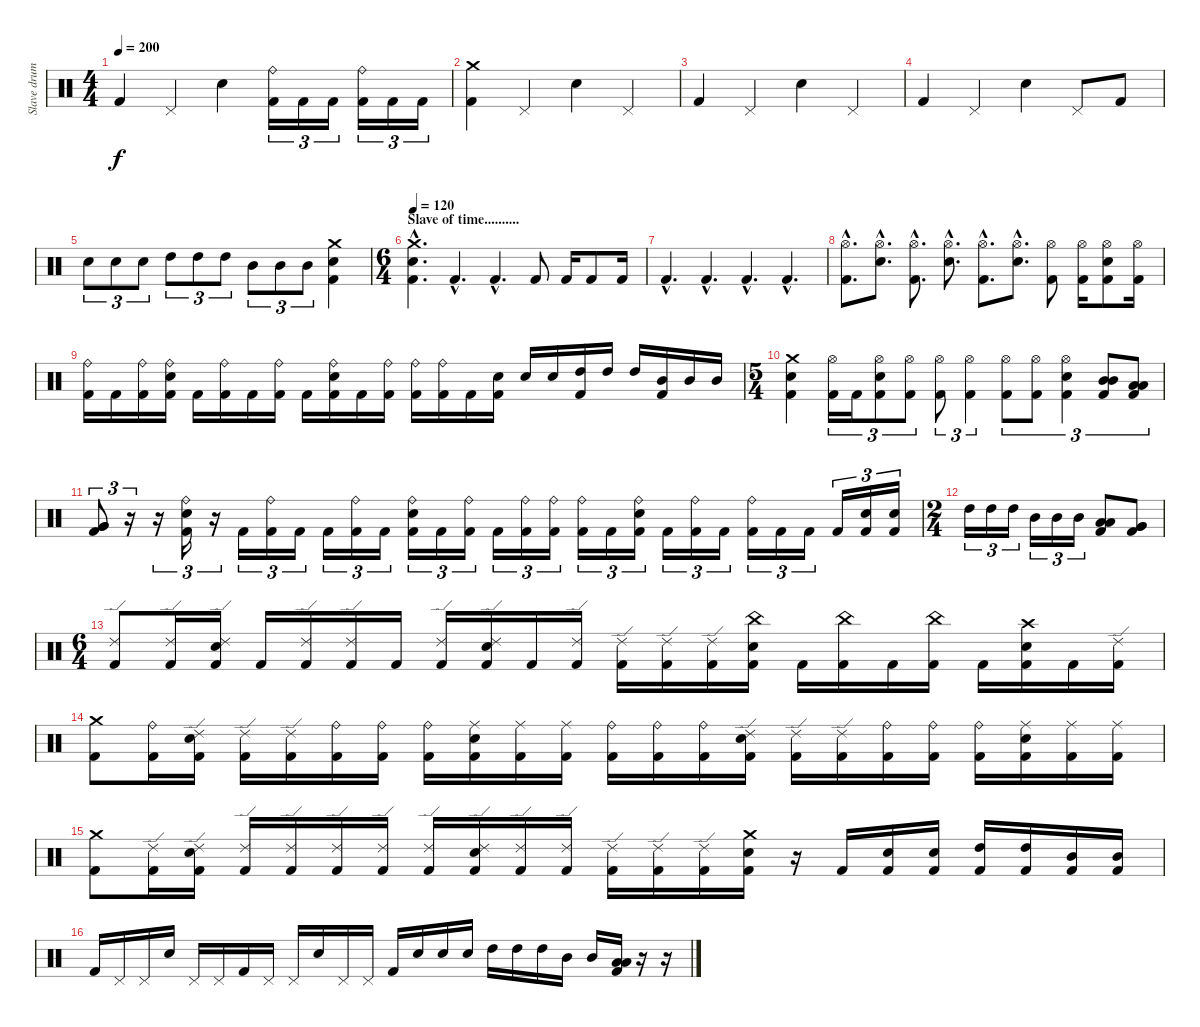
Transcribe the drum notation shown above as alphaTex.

\track ("Slave drum" "Slave drum") {instrument percussion}
\staff {score}
\articulation defaults
\ts (4 4)
\tempo 200
\clef neutral
\ks c "Kick (hit) 2".4{dy f} "Pedal Hi-Hat (hit)".4 "Electric Snare (hit)".4
("Ride (bell)" "Kick (hit) 2").16{tu (3 2)} "Kick (hit) 2".16{tu (3 2)} "Kick (hit) 2".16{tu (3 2)} ("Ride (bell)" "Kick (hit) 2").16{tu (3 2)} "Kick (hit) 2".16{tu (3 2)} "Kick (hit) 2".16{tu (3 2)} |
("Crash medium (hit)" "Kick (hit) 2").4 "Pedal Hi-Hat (hit)".4 "Electric Snare (hit)".4 "Pedal Hi-Hat (hit)".4 |
"Kick (hit) 2".4 "Pedal Hi-Hat (hit)".4 "Electric Snare (hit)".4 "Pedal Hi-Hat (hit)".4 |
"Kick (hit) 2".4 "Pedal Hi-Hat (hit)".4 "Electric Snare (hit)".4 "Pedal Hi-Hat (hit)".8 "Kick (hit) 2".8 |
"Electric Snare (hit)".8{tu (3 2)} "Electric Snare (hit)".8{tu (3 2)} "Electric Snare (hit)".8{tu (3 2)} "High Tom (hit)".8{tu (3 2)} "High Tom (hit)".8{tu (3 2)} "High Tom (hit)".8{tu (3 2)} "Mid Tom (hit)".8{tu (3 2)} "Mid Tom (hit)".8{tu (3 2)} "Mid Tom (hit)".8{tu (3 2)} ("Crash medium (hit)" "Electric Snare (hit)" "Kick (hit) 2").4 |
\ts (6 4)
\section ("" "Slave of time..........")
\tempo 120
("Crash medium (hit)"{hac} "Electric Snare (hit)"{hac} "Kick (hit) 2"{hac}).4{d} "Kick (hit) 2"{hac}.4{d} "Kick (hit) 2"{hac}.4{d} "Kick (hit) 2".8 "Kick (hit) 2".16 "Kick (hit) 2".8 "Kick (hit) 2".16 |
"Kick (hit) 2"{hac}.4{d} "Kick (hit) 2"{hac}.4{d} "Kick (hit) 2"{hac}.4{d} "Kick (hit) 2"{hac}.4{d} |
("Hi-Hat (open)"{hac} "Kick (hit) 2"{hac}).8{d} ("Hi-Hat (open)"{hac} "Electric Snare (hit)"{hac}).8{d} ("Hi-Hat (open)"{hac} "Kick (hit) 2"{hac}).8{d} ("Hi-Hat (open)"{hac} "Electric Snare (hit)"{hac}).8{d} ("Hi-Hat (open)"{hac} "Kick (hit) 2"{hac}).8{d} ("Hi-Hat (open)"{hac} "Electric Snare (hit)"{hac}).8{d} ("Hi-Hat (open)" "Kick (hit) 2").8 ("Hi-Hat (open)" "Kick (hit) 2").16 ("Hi-Hat (open)" "Electric Snare (hit)" "Kick (hit) 2").8 ("Hi-Hat (open)" "Kick (hit) 2").16 |
("Ride (bell)" "Kick (hit) 2").16 "Kick (hit) 2".16 ("Ride (bell)" "Kick (hit) 2").16 ("Ride (bell)" "Electric Snare (hit)" "Kick (hit) 2").16 "Kick (hit) 2".16 ("Ride (bell)" "Kick (hit) 2").16 "Kick (hit) 2".16 ("Ride (bell)" "Kick (hit) 2").16 "Kick (hit) 2".16 ("Ride (bell)" "Electric Snare (hit)" "Kick (hit) 2").16 "Kick (hit) 2".16 ("Ride (bell)" "Kick (hit) 2").16 ("Ride (bell)" "Kick (hit) 2").16 ("Ride (bell)" "Kick (hit) 2").16 "Kick (hit) 2".16 ("Electric Snare (hit)" "Kick (hit) 2").16 "Electric Snare (hit)".16 "Electric Snare (hit)".16 ("High Tom (hit)" "Kick (hit) 2").16 "High Tom (hit)".16 "High Tom (hit)".16 ("Mid Tom (hit)" "Kick (hit) 2").16 "Mid Tom (hit)".16 "Mid Tom (hit)".16 |
\ts (5 4)
("Crash medium (hit)" "Electric Snare (hit)" "Kick (hit) 2").4 ("Hi-Hat (open)" "Kick (hit) 2").16{tu (3 2)} "Kick (hit) 2".16{tu (3 2)} ("Hi-Hat (open)" "Electric Snare (hit)" "Kick (hit) 2").8{tu (3 2)} ("Hi-Hat (open)" "Kick (hit) 2").8{tu (3 2)} ("Hi-Hat (open)" "Kick (hit) 2").8{tu (3 2)} ("Hi-Hat (open)" "Kick (hit) 2").4{tu (3 2)} ("Hi-Hat (open)" "Kick (hit) 2").8{tu (3 2)} ("Hi-Hat (open)" "Kick (hit) 2").8{tu (3 2)} ("Hi-Hat (open)" "Electric Snare (hit)" "Kick (hit) 2").4{tu (3 2)} ("Mid Tom (hit)" "Mid Tom (hit)" "Kick (hit) 2").8{tu (3 2)} ("Low Tom (hit)" "Low Tom (hit)" "Kick (hit) 2").8{tu (3 2)} |
("Very Low Tom (hit)" "Very Low Tom (hit)" "Kick (hit) 2").8{tu (3 2)} r.16{tu (3 2)} r.16{tu (3 2)} ("Ride (bell)" "Electric Snare (hit)" "Kick (hit) 2").16{tu (3 2)} r.16{tu (3 2)} "Kick (hit) 2".16{tu (3 2)} ("Ride (bell)" "Kick (hit) 2").16{tu (3 2)} "Kick (hit) 2".16{tu (3 2)} "Kick (hit) 2".16{tu (3 2)} ("Ride (bell)" "Kick (hit) 2").16{tu (3 2)} "Kick (hit) 2".16{tu (3 2)} ("Ride (bell)" "Electric Snare (hit)" "Kick (hit) 2").16{tu (3 2)} "Kick (hit) 2".16{tu (3 2)} ("Ride (bell)" "Kick (hit) 2").16{tu (3 2)} "Kick (hit) 2".16{tu (3 2)} ("Ride (bell)" "Kick (hit) 2").16{tu (3 2)} ("Ride (bell)" "Kick (hit) 2").16{tu (3 2)} ("Ride (bell)" "Kick (hit) 2").16{tu (3 2)} "Kick (hit) 2".16{tu (3 2)} ("Ride (bell)" "Electric Snare (hit)" "Kick (hit) 2").16{tu (3 2)} "Kick (hit) 2".16{tu (3 2)} ("Ride (bell)" "Kick (hit) 2").16{tu (3 2)} "Kick (hit) 2".16{tu (3 2)} ("Ride (bell)" "Kick (hit) 2").16{tu (3 2)} "Kick (hit) 2".16{tu (3 2)} "Kick (hit) 2".16{tu (3 2)} "Kick (hit) 2".16{tu (3 2)} ("Electric Snare (hit)" "Kick (hit) 2").16{tu (3 2)} ("Electric Snare (hit)" "Kick (hit) 2").16{tu (3 2)} |
\ts (2 4)
"High Tom (hit)".16{tu (3 2)} "High Tom (hit)".16{tu (3 2)} "High Tom (hit)".16{tu (3 2)} "Mid Tom (hit)".16{tu (3 2)} "Mid Tom (hit)".16{tu (3 2)} "Mid Tom (hit)".16{tu (3 2)} ("Low Tom (hit)" "Low Tom (hit)" "Kick (hit) 2").8 ("Very Low Tom (hit)" "Very Low Tom (hit)" "Kick (hit) 2").8 |
\ts (6 4)
("Ride (edge) 2" "Kick (hit) 2").8 ("Ride (edge) 2" "Kick (hit) 2").16 ("Ride (edge) 2" "Electric Snare (hit)" "Kick (hit) 2").16 "Kick (hit) 2".16 ("Ride (edge) 2" "Kick (hit) 2").16 ("Ride (edge) 2" "Kick (hit) 2").16 "Kick (hit) 2".16 ("Ride (edge) 2" "Kick (hit) 2").16 ("Ride (edge) 2" "Electric Snare (hit)" "Kick (hit) 2").16 "Kick (hit) 2".16 ("Ride (edge) 2" "Kick (hit) 2").16 ("Ride (edge) 2" "Kick (hit) 2").16 ("Ride (edge) 2" "Kick (hit) 2").16 ("Ride (edge) 2" "Kick (hit) 2").16 ("China (hit)" "Electric Snare (hit)" "Kick (hit) 2").16 "Kick (hit) 2".16 ("China (hit)" "Kick (hit) 2").16 "Kick (hit) 2".16 ("China (hit)" "Kick (hit) 2").16 "Kick (hit) 2".16 ("Crash high (hit)" "Electric Snare (hit)" "Kick (hit) 2").16 "Kick (hit) 2".16 ("Ride (edge) 2" "Kick (hit) 2").16 |
("Crash medium (hit)" "Kick (hit) 2").8 ("Ride (bell)" "Kick (hit) 2").16 ("Ride (edge) 2" "Electric Snare (hit)" "Kick (hit) 2").16 ("Ride (edge) 2" "Kick (hit) 2").16 ("Ride (edge) 2" "Kick (hit) 2").16 ("Ride (bell)" "Kick (hit) 2").16 ("Ride (bell)" "Kick (hit) 2").16 ("Ride (bell)" "Kick (hit) 2").16 ("Ride (middle)" "Electric Snare (hit)" "Kick (hit) 2").16 ("Ride (middle)" "Kick (hit) 2").16 ("Ride (middle)" "Kick (hit) 2").16 ("Ride (bell)" "Kick (hit) 2").16 ("Ride (bell)" "Kick (hit) 2").16 ("Ride (bell)" "Kick (hit) 2").16 ("Ride (edge) 2" "Electric Snare (hit)" "Kick (hit) 2").16 ("Ride (edge) 2" "Kick (hit) 2").16 ("Ride (edge) 2" "Kick (hit) 2").16 ("Ride (bell)" "Kick (hit) 2").16 ("Ride (bell)" "Kick (hit) 2").16 ("Ride (bell)" "Kick (hit) 2").16 ("Ride (middle)" "Electric Snare (hit)" "Kick (hit) 2").16 ("Ride (middle)" "Kick (hit) 2").16 ("Ride (middle)" "Kick (hit) 2").16 |
("Crash medium (hit)" "Kick (hit) 2").8 ("Ride (edge) 2" "Kick (hit) 2").16 ("Ride (edge) 2" "Electric Snare (hit)" "Kick (hit) 2").16 ("Ride (edge) 2" "Kick (hit) 2").16 ("Ride (edge) 2" "Kick (hit) 2").16 ("Ride (edge) 2" "Kick (hit) 2").16 ("Ride (edge) 2" "Kick (hit) 2").16 ("Ride (edge) 2" "Kick (hit) 2").16 ("Ride (edge) 2" "Electric Snare (hit)" "Kick (hit) 2").16 ("Ride (edge) 2" "Kick (hit) 2").16 ("Ride (edge) 2" "Kick (hit) 2").16 ("Ride (edge) 2" "Kick (hit) 2").16 ("Ride (edge) 2" "Kick (hit) 2").16 ("Ride (edge) 2" "Kick (hit) 2").16 ("Crash medium (hit)" "Electric Snare (hit)" "Kick (hit) 2").16 r.16 "Kick (hit) 2".16 ("Electric Snare (hit)" "Kick (hit) 2").16 ("Electric Snare (hit)" "Kick (hit) 2").16 ("High Tom (hit)" "Kick (hit) 2").16 ("High Tom (hit)" "Kick (hit) 2").16 ("Mid Tom (hit)" "Kick (hit) 2").16 ("Mid Tom (hit)" "Kick (hit) 2").16 |
"Kick (hit) 2".16 "Pedal Hi-Hat (hit)".16 "Pedal Hi-Hat (hit)".16 "Electric Snare (hit)".16 "Pedal Hi-Hat (hit)".16 "Pedal Hi-Hat (hit)".16 "Kick (hit) 2".16 "Pedal Hi-Hat (hit)".16 "Pedal Hi-Hat (hit)".16 "Electric Snare (hit)".16 "Pedal Hi-Hat (hit)".16 "Pedal Hi-Hat (hit)".16 "Kick (hit) 2".16 "Electric Snare (hit)".16 "Electric Snare (hit)".16 "Electric Snare (hit)".16 "High Tom (hit)".16 "High Tom (hit)".16 "High Tom (hit)".16 "Mid Tom (hit)".16 "Mid Tom (hit)".16 ("Low Tom (hit)" "Low Tom (hit)" "Kick (hit) 2").16 r.16 r.16
